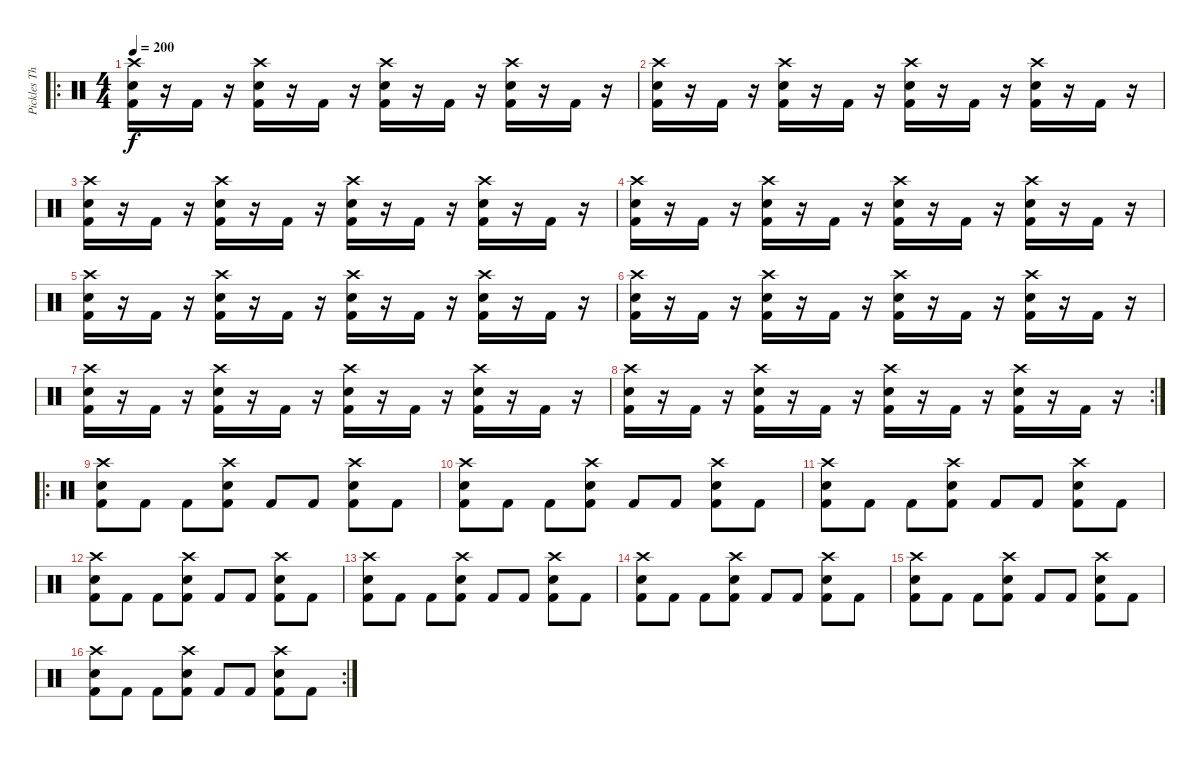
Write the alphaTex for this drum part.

\track ("Pickles The Drummer" "Pickles Th") {instrument percussion}
\staff {score}
\articulation defaults
\ro
\ts (4 4)
\tempo 200
\clef neutral
\ks c
("Crash high (hit)" "Electric Snare (hit)" "Kick (hit) 2").16{dy f} r.16 "Kick (hit) 2".16 r.16 ("Crash high (hit)" "Electric Snare (hit)" "Kick (hit) 2").16 r.16 "Kick (hit) 2".16 r.16 ("Crash high (hit)" "Electric Snare (hit)" "Kick (hit) 2").16 r.16 "Kick (hit) 2".16 r.16 ("Crash high (hit)" "Electric Snare (hit)" "Kick (hit) 2").16 r.16 "Kick (hit) 2".16 r.16 |
("Crash high (hit)" "Electric Snare (hit)" "Kick (hit) 2").16 r.16 "Kick (hit) 2".16 r.16 ("Crash high (hit)" "Electric Snare (hit)" "Kick (hit) 2").16 r.16 "Kick (hit) 2".16 r.16 ("Crash high (hit)" "Electric Snare (hit)" "Kick (hit) 2").16 r.16 "Kick (hit) 2".16 r.16 ("Crash high (hit)" "Electric Snare (hit)" "Kick (hit) 2").16 r.16 "Kick (hit) 2".16 r.16 |
("Crash high (hit)" "Electric Snare (hit)" "Kick (hit) 2").16 r.16 "Kick (hit) 2".16 r.16 ("Crash high (hit)" "Electric Snare (hit)" "Kick (hit) 2").16 r.16 "Kick (hit) 2".16 r.16 ("Crash high (hit)" "Electric Snare (hit)" "Kick (hit) 2").16 r.16 "Kick (hit) 2".16 r.16 ("Crash high (hit)" "Electric Snare (hit)" "Kick (hit) 2").16 r.16 "Kick (hit) 2".16 r.16 |
("Crash high (hit)" "Electric Snare (hit)" "Kick (hit) 2").16 r.16 "Kick (hit) 2".16 r.16 ("Crash high (hit)" "Electric Snare (hit)" "Kick (hit) 2").16 r.16 "Kick (hit) 2".16 r.16 ("Crash high (hit)" "Electric Snare (hit)" "Kick (hit) 2").16 r.16 "Kick (hit) 2".16 r.16 ("Crash high (hit)" "Electric Snare (hit)" "Kick (hit) 2").16 r.16 "Kick (hit) 2".16 r.16 |
("Crash high (hit)" "Electric Snare (hit)" "Kick (hit) 2").16 r.16 "Kick (hit) 2".16 r.16 ("Crash high (hit)" "Electric Snare (hit)" "Kick (hit) 2").16 r.16 "Kick (hit) 2".16 r.16 ("Crash high (hit)" "Electric Snare (hit)" "Kick (hit) 2").16 r.16 "Kick (hit) 2".16 r.16 ("Crash high (hit)" "Electric Snare (hit)" "Kick (hit) 2").16 r.16 "Kick (hit) 2".16 r.16 |
("Crash high (hit)" "Electric Snare (hit)" "Kick (hit) 2").16 r.16 "Kick (hit) 2".16 r.16 ("Crash high (hit)" "Electric Snare (hit)" "Kick (hit) 2").16 r.16 "Kick (hit) 2".16 r.16 ("Crash high (hit)" "Electric Snare (hit)" "Kick (hit) 2").16 r.16 "Kick (hit) 2".16 r.16 ("Crash high (hit)" "Electric Snare (hit)" "Kick (hit) 2").16 r.16 "Kick (hit) 2".16 r.16 |
("Crash high (hit)" "Electric Snare (hit)" "Kick (hit) 2").16 r.16 "Kick (hit) 2".16 r.16 ("Crash high (hit)" "Electric Snare (hit)" "Kick (hit) 2").16 r.16 "Kick (hit) 2".16 r.16 ("Crash high (hit)" "Electric Snare (hit)" "Kick (hit) 2").16 r.16 "Kick (hit) 2".16 r.16 ("Crash high (hit)" "Electric Snare (hit)" "Kick (hit) 2").16 r.16 "Kick (hit) 2".16 r.16 |
\rc 2
("Crash high (hit)" "Electric Snare (hit)" "Kick (hit) 2").16 r.16 "Kick (hit) 2".16 r.16 ("Crash high (hit)" "Electric Snare (hit)" "Kick (hit) 2").16 r.16 "Kick (hit) 2".16 r.16 ("Crash high (hit)" "Electric Snare (hit)" "Kick (hit) 2").16 r.16 "Kick (hit) 2".16 r.16 ("Crash high (hit)" "Electric Snare (hit)" "Kick (hit) 2").16 r.16 "Kick (hit) 2".16 r.16 |
\ro
("Crash high (hit)" "Electric Snare (hit)" "Kick (hit) 2").8 "Kick (hit) 2".8 "Kick (hit) 2".8 ("Crash high (hit)" "Electric Snare (hit)" "Kick (hit) 2").8 "Kick (hit) 2".8 "Kick (hit) 2".8 ("Crash high (hit)" "Electric Snare (hit)" "Kick (hit) 2").8 "Kick (hit) 2".8 |
("Crash high (hit)" "Electric Snare (hit)" "Kick (hit) 2").8 "Kick (hit) 2".8 "Kick (hit) 2".8 ("Crash high (hit)" "Electric Snare (hit)" "Kick (hit) 2").8 "Kick (hit) 2".8 "Kick (hit) 2".8 ("Crash high (hit)" "Electric Snare (hit)" "Kick (hit) 2").8 "Kick (hit) 2".8 |
("Crash high (hit)" "Electric Snare (hit)" "Kick (hit) 2").8 "Kick (hit) 2".8 "Kick (hit) 2".8 ("Crash high (hit)" "Electric Snare (hit)" "Kick (hit) 2").8 "Kick (hit) 2".8 "Kick (hit) 2".8 ("Crash high (hit)" "Electric Snare (hit)" "Kick (hit) 2").8 "Kick (hit) 2".8 |
("Crash high (hit)" "Electric Snare (hit)" "Kick (hit) 2").8 "Kick (hit) 2".8 "Kick (hit) 2".8 ("Crash high (hit)" "Electric Snare (hit)" "Kick (hit) 2").8 "Kick (hit) 2".8 "Kick (hit) 2".8 ("Crash high (hit)" "Electric Snare (hit)" "Kick (hit) 2").8 "Kick (hit) 2".8 |
("Crash high (hit)" "Electric Snare (hit)" "Kick (hit) 2").8 "Kick (hit) 2".8 "Kick (hit) 2".8 ("Crash high (hit)" "Electric Snare (hit)" "Kick (hit) 2").8 "Kick (hit) 2".8 "Kick (hit) 2".8 ("Crash high (hit)" "Electric Snare (hit)" "Kick (hit) 2").8 "Kick (hit) 2".8 |
("Crash high (hit)" "Electric Snare (hit)" "Kick (hit) 2").8 "Kick (hit) 2".8 "Kick (hit) 2".8 ("Crash high (hit)" "Electric Snare (hit)" "Kick (hit) 2").8 "Kick (hit) 2".8 "Kick (hit) 2".8 ("Crash high (hit)" "Electric Snare (hit)" "Kick (hit) 2").8 "Kick (hit) 2".8 |
("Crash high (hit)" "Electric Snare (hit)" "Kick (hit) 2").8 "Kick (hit) 2".8 "Kick (hit) 2".8 ("Crash high (hit)" "Electric Snare (hit)" "Kick (hit) 2").8 "Kick (hit) 2".8 "Kick (hit) 2".8 ("Crash high (hit)" "Electric Snare (hit)" "Kick (hit) 2").8 "Kick (hit) 2".8 |
\rc 2
("Crash high (hit)" "Electric Snare (hit)" "Kick (hit) 2").8 "Kick (hit) 2".8 "Kick (hit) 2".8 ("Crash high (hit)" "Electric Snare (hit)" "Kick (hit) 2").8 "Kick (hit) 2".8 "Kick (hit) 2".8 ("Crash high (hit)" "Electric Snare (hit)" "Kick (hit) 2").8 "Kick (hit) 2".8
